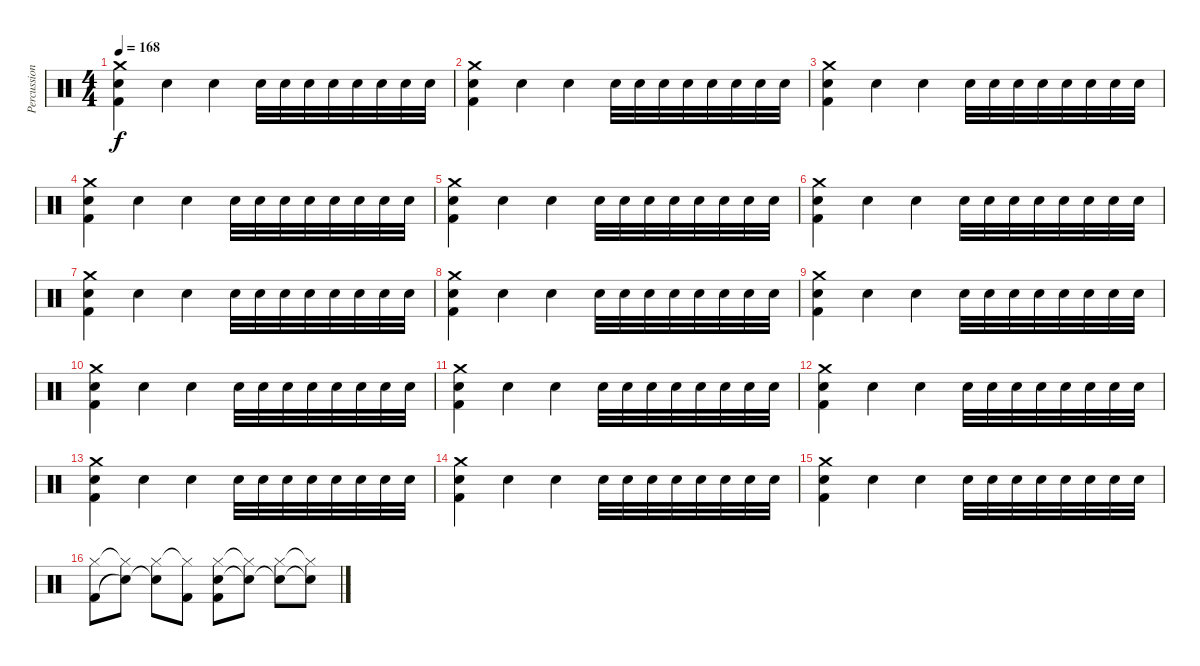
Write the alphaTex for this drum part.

\track ("Percussion" "Percussion") {instrument percussion}
\staff {score}
\articulation defaults
\ts (4 4)
\tempo 168
\clef neutral
\ks c
("Crash medium (hit)" "Electric Snare (hit)" "Kick (hit) 2").4{dy f} "Electric Snare (hit)".4 "Electric Snare (hit)".4 "Electric Snare (hit)".32 "Electric Snare (hit)".32 "Electric Snare (hit)".32 "Electric Snare (hit)".32 "Electric Snare (hit)".32 "Electric Snare (hit)".32 "Electric Snare (hit)".32 "Electric Snare (hit)".32 |
("Crash medium (hit)" "Electric Snare (hit)" "Kick (hit) 2").4 "Electric Snare (hit)".4 "Electric Snare (hit)".4 "Electric Snare (hit)".32 "Electric Snare (hit)".32 "Electric Snare (hit)".32 "Electric Snare (hit)".32 "Electric Snare (hit)".32 "Electric Snare (hit)".32 "Electric Snare (hit)".32 "Electric Snare (hit)".32 |
("Crash medium (hit)" "Electric Snare (hit)" "Kick (hit) 2").4 "Electric Snare (hit)".4 "Electric Snare (hit)".4 "Electric Snare (hit)".32 "Electric Snare (hit)".32 "Electric Snare (hit)".32 "Electric Snare (hit)".32 "Electric Snare (hit)".32 "Electric Snare (hit)".32 "Electric Snare (hit)".32 "Electric Snare (hit)".32 |
("Crash medium (hit)" "Electric Snare (hit)" "Kick (hit) 2").4 "Electric Snare (hit)".4 "Electric Snare (hit)".4 "Electric Snare (hit)".32 "Electric Snare (hit)".32 "Electric Snare (hit)".32 "Electric Snare (hit)".32 "Electric Snare (hit)".32 "Electric Snare (hit)".32 "Electric Snare (hit)".32 "Electric Snare (hit)".32 |
("Crash medium (hit)" "Electric Snare (hit)" "Kick (hit) 2").4 "Electric Snare (hit)".4 "Electric Snare (hit)".4 "Electric Snare (hit)".32 "Electric Snare (hit)".32 "Electric Snare (hit)".32 "Electric Snare (hit)".32 "Electric Snare (hit)".32 "Electric Snare (hit)".32 "Electric Snare (hit)".32 "Electric Snare (hit)".32 |
("Crash medium (hit)" "Electric Snare (hit)" "Kick (hit) 2").4 "Electric Snare (hit)".4 "Electric Snare (hit)".4 "Electric Snare (hit)".32 "Electric Snare (hit)".32 "Electric Snare (hit)".32 "Electric Snare (hit)".32 "Electric Snare (hit)".32 "Electric Snare (hit)".32 "Electric Snare (hit)".32 "Electric Snare (hit)".32 |
("Crash medium (hit)" "Electric Snare (hit)" "Kick (hit) 2").4 "Electric Snare (hit)".4 "Electric Snare (hit)".4 "Electric Snare (hit)".32 "Electric Snare (hit)".32 "Electric Snare (hit)".32 "Electric Snare (hit)".32 "Electric Snare (hit)".32 "Electric Snare (hit)".32 "Electric Snare (hit)".32 "Electric Snare (hit)".32 |
("Crash medium (hit)" "Electric Snare (hit)" "Kick (hit) 2").4 "Electric Snare (hit)".4 "Electric Snare (hit)".4 "Electric Snare (hit)".32 "Electric Snare (hit)".32 "Electric Snare (hit)".32 "Electric Snare (hit)".32 "Electric Snare (hit)".32 "Electric Snare (hit)".32 "Electric Snare (hit)".32 "Electric Snare (hit)".32 |
("Crash medium (hit)" "Electric Snare (hit)" "Kick (hit) 2").4 "Electric Snare (hit)".4 "Electric Snare (hit)".4 "Electric Snare (hit)".32 "Electric Snare (hit)".32 "Electric Snare (hit)".32 "Electric Snare (hit)".32 "Electric Snare (hit)".32 "Electric Snare (hit)".32 "Electric Snare (hit)".32 "Electric Snare (hit)".32 |
("Crash medium (hit)" "Electric Snare (hit)" "Kick (hit) 2").4 "Electric Snare (hit)".4 "Electric Snare (hit)".4 "Electric Snare (hit)".32 "Electric Snare (hit)".32 "Electric Snare (hit)".32 "Electric Snare (hit)".32 "Electric Snare (hit)".32 "Electric Snare (hit)".32 "Electric Snare (hit)".32 "Electric Snare (hit)".32 |
("Crash medium (hit)" "Electric Snare (hit)" "Kick (hit) 2").4 "Electric Snare (hit)".4 "Electric Snare (hit)".4 "Electric Snare (hit)".32 "Electric Snare (hit)".32 "Electric Snare (hit)".32 "Electric Snare (hit)".32 "Electric Snare (hit)".32 "Electric Snare (hit)".32 "Electric Snare (hit)".32 "Electric Snare (hit)".32 |
("Crash medium (hit)" "Electric Snare (hit)" "Kick (hit) 2").4 "Electric Snare (hit)".4 "Electric Snare (hit)".4 "Electric Snare (hit)".32 "Electric Snare (hit)".32 "Electric Snare (hit)".32 "Electric Snare (hit)".32 "Electric Snare (hit)".32 "Electric Snare (hit)".32 "Electric Snare (hit)".32 "Electric Snare (hit)".32 |
("Crash medium (hit)" "Electric Snare (hit)" "Kick (hit) 2").4 "Electric Snare (hit)".4 "Electric Snare (hit)".4 "Electric Snare (hit)".32 "Electric Snare (hit)".32 "Electric Snare (hit)".32 "Electric Snare (hit)".32 "Electric Snare (hit)".32 "Electric Snare (hit)".32 "Electric Snare (hit)".32 "Electric Snare (hit)".32 |
("Crash medium (hit)" "Electric Snare (hit)" "Kick (hit) 2").4 "Electric Snare (hit)".4 "Electric Snare (hit)".4 "Electric Snare (hit)".32 "Electric Snare (hit)".32 "Electric Snare (hit)".32 "Electric Snare (hit)".32 "Electric Snare (hit)".32 "Electric Snare (hit)".32 "Electric Snare (hit)".32 "Electric Snare (hit)".32 |
("Crash medium (hit)" "Electric Snare (hit)" "Kick (hit) 2").4 "Electric Snare (hit)".4 "Electric Snare (hit)".4 "Electric Snare (hit)".32 "Electric Snare (hit)".32 "Electric Snare (hit)".32 "Electric Snare (hit)".32 "Electric Snare (hit)".32 "Electric Snare (hit)".32 "Electric Snare (hit)".32 "Electric Snare (hit)".32 |
("Hi-Hat (closed)" "Kick (hit) 2").8 ("Hi-Hat (closed)"{t} "Snare (hit)"{t}).8 ("Hi-Hat (closed)" "Snare (hit)"{t}).8 ("Hi-Hat (closed)"{t} "Kick (hit) 2").8 ("Hi-Hat (closed)" "Electric Snare (hit)" "Kick (hit) 2").8 ("Hi-Hat (closed)"{t} "Snare (hit)"{t}).8 ("Hi-Hat (closed)" "Snare (hit)"{t}).8 ("Hi-Hat (closed)"{t} "Snare (hit)"{t}).8
